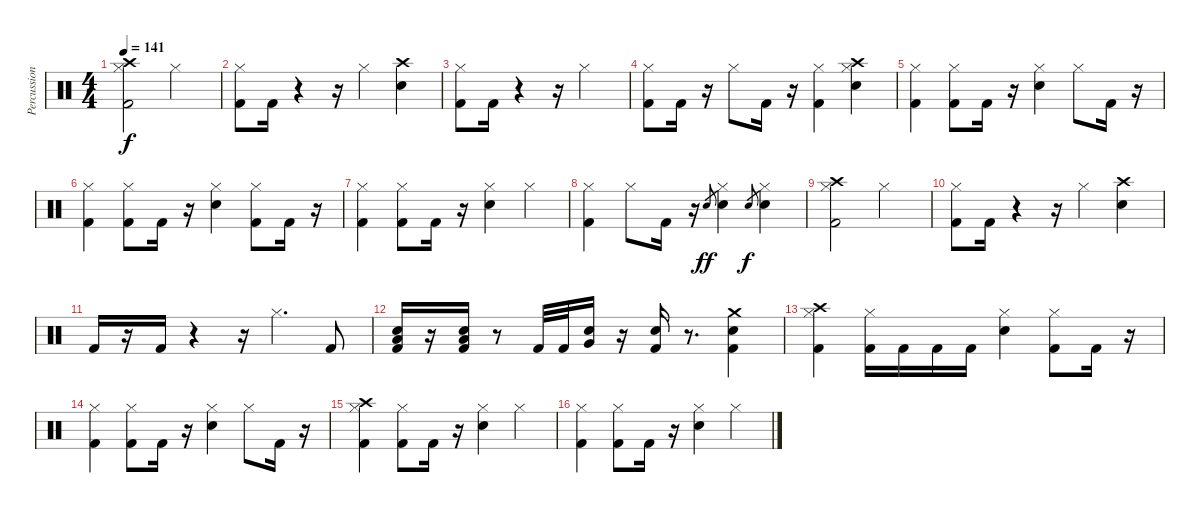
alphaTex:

\track ("Percussion" "Percussion") {instrument percussion}
\staff {score}
\articulation defaults
\ts (4 4)
\tempo 141
\clef neutral
\ks c
("Kick (hit) 2" "Hi-Hat (closed)" "Crash high (hit)").2{dy f} "Hi-Hat (closed)".2 |
("Kick (hit) 2" "Hi-Hat (closed)").8 "Kick (hit) 2".16 r.4 r.16 "Hi-Hat (closed)".4 ("Snare (hit) 2" "Crash high (hit)").4 |
("Kick (hit) 2" "Hi-Hat (closed)").8 "Kick (hit) 2".16 r.4 r.16 "Hi-Hat (closed)".2 |
("Kick (hit) 2" "Hi-Hat (closed)").8 "Kick (hit) 2".16 r.16 "Hi-Hat (closed)".8 "Kick (hit) 2".16 r.16 ("Kick (hit) 2" "Hi-Hat (closed)").4 ("Snare (hit) 2" "Hi-Hat (closed)" "Crash high (hit)").4 |
("Kick (hit) 2" "Hi-Hat (closed)").4 ("Kick (hit) 2" "Hi-Hat (closed)").8 "Kick (hit) 2".16 r.16 ("Snare (hit) 2" "Hi-Hat (closed)").4 "Hi-Hat (closed)".8 "Kick (hit) 2".16 r.16 |
("Kick (hit) 2" "Hi-Hat (closed)").4 ("Kick (hit) 2" "Hi-Hat (closed)").8 "Kick (hit) 2".16 r.16 ("Snare (hit) 2" "Hi-Hat (closed)").4 ("Kick (hit) 2" "Hi-Hat (closed)").8 "Kick (hit) 2".16 r.16 |
("Kick (hit) 2" "Hi-Hat (closed)").4 ("Kick (hit) 2" "Hi-Hat (closed)").8 "Kick (hit) 2".16 r.16 ("Snare (hit) 2" "Hi-Hat (closed)").4 "Hi-Hat (closed)".4 |
("Kick (hit) 2" "Hi-Hat (closed)").4 "Hi-Hat (closed)".8 "Kick (hit) 2".16 r.16 "Snare (hit) 2".8{gr dy ff} ("Snare (hit) 2" "Hi-Hat (closed)").4 "Snare (hit) 2".8{gr dy f} ("Snare (hit) 2" "Hi-Hat (closed)").4 |
("Kick (hit) 2" "Hi-Hat (closed)" "Crash high (hit)").2 "Hi-Hat (closed)".2 |
("Kick (hit) 2" "Hi-Hat (closed)").8 "Kick (hit) 2".16 r.4 r.16 "Hi-Hat (closed)".4 ("Snare (hit) 2" "Crash high (hit)").4 |
"Kick (hit) 2".16 r.16 "Kick (hit) 2".16 r.4 r.16 "Hi-Hat (closed)".4{d} "Kick (hit) 2".8 |
("Kick (hit) 2" "Snare (hit) 2" "Low Floor Tom (hit)").16 r.16 ("Kick (hit) 2" "Snare (hit) 2" "Low Floor Tom (hit)").16 r.8 "Kick (hit) 2".32 "Kick (hit) 2".32 ("Snare (hit) 2" "Very Low Tom (hit)").16 r.16 ("Kick (hit) 2" "Snare (hit) 2").16 r.8{d} ("Kick (hit) 2" "Snare (hit) 2" "Crash medium (hit)").4 |
("Kick (hit) 2" "Hi-Hat (closed)" "Crash high (hit)").4 ("Kick (hit) 2" "Hi-Hat (closed)").16 "Kick (hit) 2".16 "Kick (hit) 2".16 "Kick (hit) 2".16 ("Snare (hit) 2" "Hi-Hat (closed)").4 ("Kick (hit) 2" "Hi-Hat (closed)").8 "Kick (hit) 2".16 r.16 |
("Kick (hit) 2" "Hi-Hat (closed)").4 ("Kick (hit) 2" "Hi-Hat (closed)").8 "Kick (hit) 2".16 r.16 ("Snare (hit) 2" "Hi-Hat (closed)").4 "Hi-Hat (closed)".8 "Kick (hit) 2".16 r.16 |
("Kick (hit) 2" "Hi-Hat (closed)" "Crash high (hit)").4 ("Kick (hit) 2" "Hi-Hat (closed)").8 "Kick (hit) 2".16 r.16 ("Snare (hit) 2" "Hi-Hat (closed)").4 "Hi-Hat (closed)".4 |
("Kick (hit) 2" "Hi-Hat (closed)").4 ("Kick (hit) 2" "Hi-Hat (closed)").8 "Kick (hit) 2".16 r.16 ("Snare (hit) 2" "Hi-Hat (closed)").4 "Hi-Hat (closed)".4
